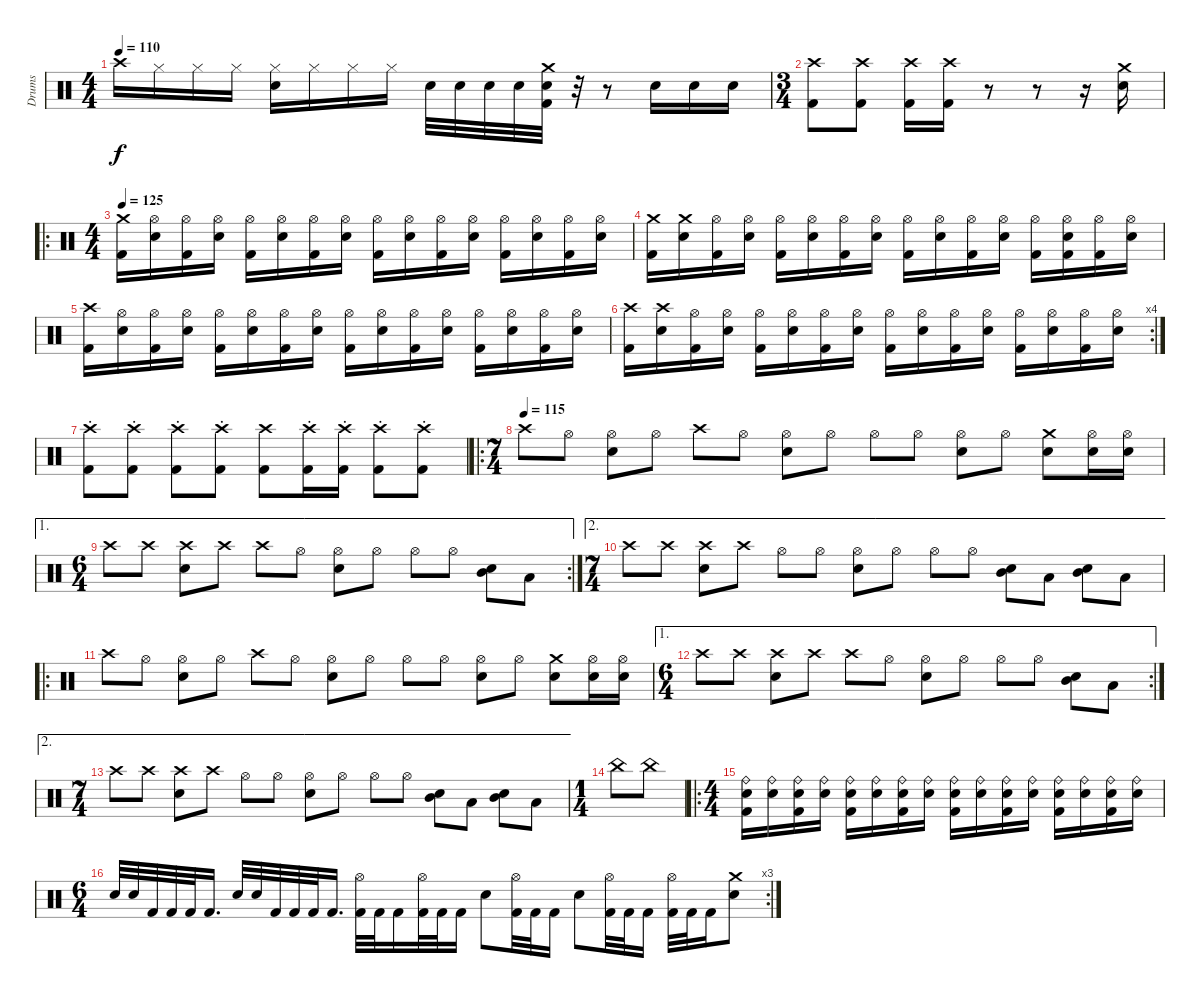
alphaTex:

\track ("Drums" "Drums") {instrument percussion}
\staff {score}
\articulation defaults
\ts (4 4)
\tempo 110
\clef neutral
\ks c "Crash high (hit)".16{dy f} "Hi-Hat (closed)".16 "Hi-Hat (closed)".16 "Hi-Hat (closed)".16
("Hi-Hat (closed)" "Snare (hit) 2").16 "Hi-Hat (closed)".16 "Hi-Hat (closed)".16 "Hi-Hat (closed)".16 "Snare (hit) 2".32 "Snare (hit) 2".32 "Snare (hit) 2".32 "Snare (hit) 2".32 ("Kick (hit) 2" "Crash medium (hit)" "Snare (hit) 2").32 r.32 r.8 "Snare (hit) 2".16 "Snare (hit) 2".16 "Snare (hit) 2".16 |
\ts (3 4)
("Kick (hit) 2" "Crash high (hit)").8 ("Kick (hit) 2" "Crash high (hit)").8 ("Kick (hit) 2" "Crash high (hit)").16 ("Kick (hit) 2" "Crash high (hit)").16 r.8 r.8 r.16 ("Crash medium (hit)" "Snare (hit) 2").16 |
\ro
\ts (4 4)
\tempo 125
("Kick (hit) 2" "Crash medium (hit)").16 ("Hi-Hat (open)" "Snare (hit) 2").16 ("Kick (hit) 2" "Hi-Hat (open)").16 ("Hi-Hat (open)" "Snare (hit) 2").16 ("Kick (hit) 2" "Hi-Hat (open)").16 ("Hi-Hat (open)" "Snare (hit) 2").16 ("Kick (hit) 2" "Hi-Hat (open)").16 ("Hi-Hat (open)" "Snare (hit) 2").16 ("Kick (hit) 2" "Hi-Hat (open)").16 ("Hi-Hat (open)" "Snare (hit) 2").16 ("Kick (hit) 2" "Hi-Hat (open)").16 ("Hi-Hat (open)" "Snare (hit) 2").16 ("Kick (hit) 2" "Hi-Hat (open)").16 ("Hi-Hat (open)" "Snare (hit) 2").16 ("Kick (hit) 2" "Hi-Hat (open)").16 ("Hi-Hat (open)" "Snare (hit) 2").16 |
("Kick (hit) 2" "Crash medium (hit)").16 ("Crash medium (hit)" "Snare (hit) 2").16 ("Kick (hit) 2" "Hi-Hat (open)").16 ("Hi-Hat (open)" "Snare (hit) 2").16 ("Kick (hit) 2" "Hi-Hat (open)").16 ("Hi-Hat (open)" "Snare (hit) 2").16 ("Kick (hit) 2" "Hi-Hat (open)").16 ("Hi-Hat (open)" "Snare (hit) 2").16 ("Kick (hit) 2" "Hi-Hat (open)").16 ("Hi-Hat (open)" "Snare (hit) 2").16 ("Kick (hit) 2" "Hi-Hat (open)").16 ("Hi-Hat (open)" "Snare (hit) 2").16 ("Kick (hit) 2" "Hi-Hat (open)").16 ("Kick (hit) 2" "Hi-Hat (open)" "Snare (hit) 2").16 ("Kick (hit) 2" "Hi-Hat (open)").16 ("Hi-Hat (open)" "Snare (hit) 2").16 |
("Kick (hit) 2" "Crash high (hit)").16 ("Hi-Hat (open)" "Snare (hit) 2").16 ("Kick (hit) 2" "Hi-Hat (open)").16 ("Hi-Hat (open)" "Snare (hit) 2").16 ("Kick (hit) 2" "Hi-Hat (open)").16 ("Hi-Hat (open)" "Snare (hit) 2").16 ("Kick (hit) 2" "Hi-Hat (open)").16 ("Hi-Hat (open)" "Snare (hit) 2").16 ("Kick (hit) 2" "Hi-Hat (open)").16 ("Hi-Hat (open)" "Snare (hit) 2").16 ("Kick (hit) 2" "Hi-Hat (open)").16 ("Hi-Hat (open)" "Snare (hit) 2").16 ("Kick (hit) 2" "Hi-Hat (open)").16 ("Hi-Hat (open)" "Snare (hit) 2").16 ("Kick (hit) 2" "Hi-Hat (open)").16 ("Hi-Hat (open)" "Snare (hit) 2").16 |
\rc 4
("Kick (hit) 2" "Crash high (hit)").16 ("Crash high (hit)" "Snare (hit) 2").16 ("Kick (hit) 2" "Hi-Hat (open)").16 ("Hi-Hat (open)" "Snare (hit) 2").16 ("Kick (hit) 2" "Hi-Hat (open)").16 ("Hi-Hat (open)" "Snare (hit) 2").16 ("Kick (hit) 2" "Hi-Hat (open)").16 ("Hi-Hat (open)" "Snare (hit) 2").16 ("Kick (hit) 2" "Hi-Hat (open)").16 ("Hi-Hat (open)" "Snare (hit) 2").16 ("Kick (hit) 2" "Hi-Hat (open)").16 ("Hi-Hat (open)" "Snare (hit) 2").16 ("Kick (hit) 2" "Hi-Hat (open)").16 ("Hi-Hat (open)" "Snare (hit) 2").16 ("Kick (hit) 2" "Hi-Hat (open)").16 ("Hi-Hat (open)" "Snare (hit) 2").16 |
("Kick (hit) 2"{st} "Crash high (hit)").8 ("Kick (hit) 2"{st} "Crash high (hit)").8 ("Kick (hit) 2"{st} "Crash high (hit)").8 ("Kick (hit) 2"{st} "Crash high (hit)").8 ("Kick (hit) 2" "Crash high (hit)").8 ("Kick (hit) 2"{st} "Crash high (hit)").16 ("Kick (hit) 2"{st} "Crash high (hit)").16 ("Kick (hit) 2"{st} "Crash high (hit)").8 ("Kick (hit) 2"{st} "Crash high (hit)").8 |
\ro
\ts (7 4)
\tempo (115)
"Crash high (hit)".8 "Hi-Hat (open)".8 ("Hi-Hat (open)" "Snare (hit) 2").8 "Hi-Hat (open)".8 "Crash high (hit)".8 "Hi-Hat (open)".8 ("Hi-Hat (open)" "Snare (hit) 2").8 "Hi-Hat (open)".8 "Hi-Hat (open)".8 "Hi-Hat (open)".8 ("Hi-Hat (open)" "Snare (hit) 2").8 "Hi-Hat (open)".8 ("Crash medium (hit)" "Snare (hit) 2").8 ("Hi-Hat (open)" "Snare (hit) 2").16 ("Hi-Hat (open)" "Snare (hit) 2").16 |
\ae 1
\rc 2
\ts (6 4)
"Crash high (hit)".8 "Crash high (hit)".8 ("Crash high (hit)" "Snare (hit) 2").8 "Crash high (hit)".8 "Crash high (hit)".8 "Hi-Hat (open)".8 ("Hi-Hat (open)" "Snare (hit) 2").8 "Hi-Hat (open)".8 "Hi-Hat (open)".8 "Hi-Hat (open)".8 ("Mid Tom (hit)" "Snare (hit) 2").8 "Low Tom (hit)".8 |
\ae 2
\ts (7 4)
"Crash high (hit)".8 "Crash high (hit)".8 ("Crash high (hit)" "Snare (hit) 2").8 "Crash high (hit)".8 "Hi-Hat (open)".8 "Hi-Hat (open)".8 ("Hi-Hat (open)" "Snare (hit) 2").8 "Hi-Hat (open)".8 "Hi-Hat (open)".8 "Hi-Hat (open)".8 ("Mid Tom (hit)" "Snare (hit) 2").8 "Low Tom (hit)".8 ("Mid Tom (hit)" "Snare (hit) 2").8 "Low Tom (hit)".8 |
\ro "Crash high (hit)".8 "Hi-Hat (open)".8
("Hi-Hat (open)" "Snare (hit) 2").8 "Hi-Hat (open)".8 "Crash high (hit)".8 "Hi-Hat (open)".8 ("Hi-Hat (open)" "Snare (hit) 2").8 "Hi-Hat (open)".8 "Hi-Hat (open)".8 "Hi-Hat (open)".8 ("Hi-Hat (open)" "Snare (hit) 2").8 "Hi-Hat (open)".8 ("Crash medium (hit)" "Snare (hit) 2").8 ("Hi-Hat (open)" "Snare (hit) 2").16 ("Hi-Hat (open)" "Snare (hit) 2").16 |
\ae 1
\rc 2
\ts (6 4)
"Crash high (hit)".8 "Crash high (hit)".8 ("Crash high (hit)" "Snare (hit) 2").8 "Crash high (hit)".8 "Crash high (hit)".8 "Hi-Hat (open)".8 ("Hi-Hat (open)" "Snare (hit) 2").8 "Hi-Hat (open)".8 "Hi-Hat (open)".8 "Hi-Hat (open)".8 ("Mid Tom (hit)" "Snare (hit) 2").8 "Low Tom (hit)".8 |
\ae 2
\ts (7 4)
"Crash high (hit)".8 "Crash high (hit)".8 ("Crash high (hit)" "Snare (hit) 2").8 "Crash high (hit)".8 "Hi-Hat (open)".8 "Hi-Hat (open)".8 ("Hi-Hat (open)" "Snare (hit) 2").8 "Hi-Hat (open)".8 "Hi-Hat (open)".8 "Hi-Hat (open)".8 ("Mid Tom (hit)" "Snare (hit) 2").8 "Low Tom (hit)".8 ("Mid Tom (hit)" "Snare (hit) 2").8 "Low Tom (hit)".8 |
\ts (1 4)
"China (hit)".8 "China (hit)".8 |
\ro
\ts (4 4)
("Kick (hit) 2" "Ride (bell)" "Snare (hit) 2").16 ("Ride (bell)" "Snare (hit) 2").16 ("Kick (hit) 2" "Ride (bell)" "Snare (hit) 2").16 ("Ride (bell)" "Snare (hit) 2").16 ("Kick (hit) 2" "Ride (bell)" "Snare (hit) 2").16 ("Ride (bell)" "Snare (hit) 2").16 ("Kick (hit) 2" "Ride (bell)" "Snare (hit) 2").16 ("Ride (bell)" "Snare (hit) 2").16 ("Kick (hit) 2" "Ride (bell)" "Snare (hit) 2").16 ("Ride (bell)" "Snare (hit) 2").16 ("Kick (hit) 2" "Ride (bell)" "Snare (hit) 2").16 ("Ride (bell)" "Snare (hit) 2").16 ("Kick (hit) 2" "Ride (bell)" "Snare (hit) 2").16 ("Ride (bell)" "Snare (hit) 2").16 ("Kick (hit) 2" "Ride (bell)" "Snare (hit) 2").16 ("Ride (bell)" "Snare (hit) 2").16 |
\rc 3
\ts (6 4)
"Snare (hit) 2".32 "Snare (hit) 2".32 "Kick (hit) 2".32 "Kick (hit) 2".32 "Kick (hit) 2".32 "Kick (hit) 2".16{d} "Snare (hit) 2".32 "Snare (hit) 2".32 "Kick (hit) 2".32 "Kick (hit) 2".32 "Kick (hit) 2".32 "Kick (hit) 2".16{d} ("Kick (hit) 2" "Hi-Hat (open)").32 "Kick (hit) 2".32 "Kick (hit) 2".16 ("Kick (hit) 2" "Hi-Hat (open)").32 "Kick (hit) 2".32 "Kick (hit) 2".16 "Snare (hit) 2".8 ("Kick (hit) 2" "Hi-Hat (open)").32 "Kick (hit) 2".32 "Kick (hit) 2".16 "Snare (hit) 2".8 ("Kick (hit) 2" "Hi-Hat (open)").32 "Kick (hit) 2".32 "Kick (hit) 2".16 ("Kick (hit) 2" "Hi-Hat (open)").32 "Kick (hit) 2".32 "Kick (hit) 2".16 ("Crash medium (hit)" "Snare (hit) 2").8
